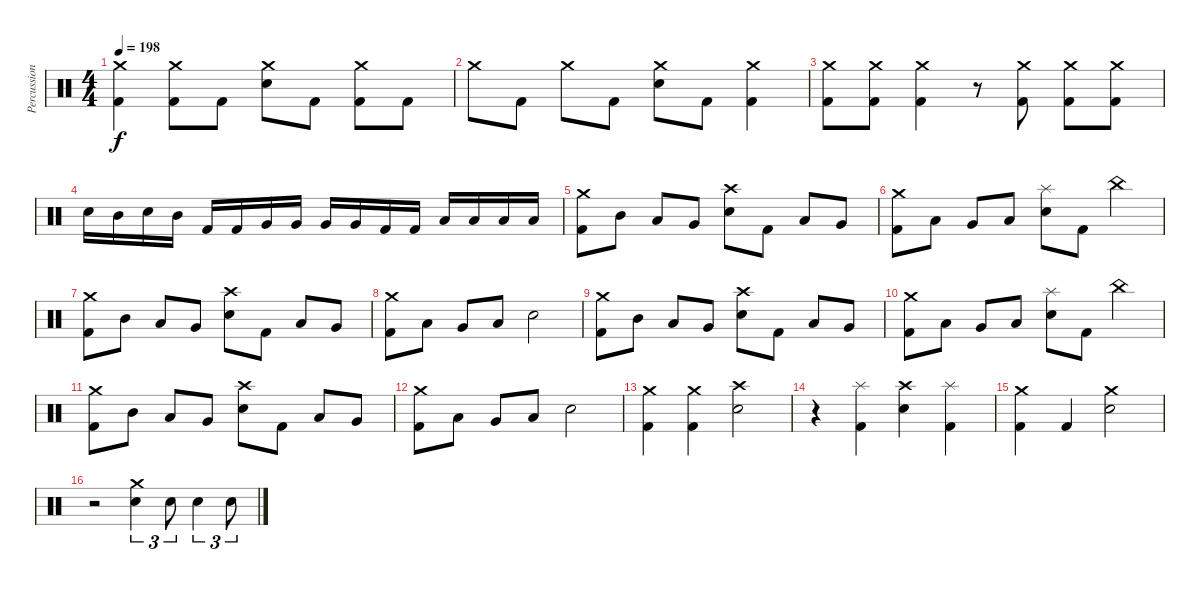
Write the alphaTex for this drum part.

\track ("Percussion" "Percussion") {instrument percussion}
\staff {score}
\articulation defaults
\ts (4 4)
\tempo 198
\clef neutral
\ks c
("Crash medium (hit)" "Kick (hit) 2").4{dy f} ("Crash medium (hit)" "Kick (hit) 2").8 "Kick (hit) 2".8 ("Crash medium (hit)" "Electric Snare (hit)").8 "Kick (hit) 2".8 ("Crash medium (hit)" "Kick (hit) 2").8 "Kick (hit) 2".8 |
"Crash medium (hit)".8 "Kick (hit) 2".8 "Crash medium (hit)".8 "Kick (hit) 2".8 ("Crash medium (hit)" "Electric Snare (hit)").8 "Kick (hit) 2".8 ("Crash medium (hit)" "Kick (hit) 2").4 |
("Crash medium (hit)" "Kick (hit) 2").8 ("Crash medium (hit)" "Kick (hit) 2").8 ("Crash medium (hit)" "Kick (hit) 2").4 r.8 ("Crash medium (hit)" "Kick (hit) 2").8 ("Crash medium (hit)" "Kick (hit) 2").8 ("Crash medium (hit)" "Kick (hit) 2").8 |
"Electric Snare (hit)".16 "Mid Tom (hit)".16 "Electric Snare (hit)".16 "Mid Tom (hit)".16 "Kick (hit) 2".16 "Kick (hit) 2".16 "Very Low Tom (hit)".16 "Very Low Tom (hit)".16 "Very Low Tom (hit)".16 "Very Low Tom (hit)".16 "Kick (hit) 2".16 "Kick (hit) 2".16 "Low Floor Tom (hit)".16 "Low Floor Tom (hit)".16 "Low Floor Tom (hit)".16 "Low Floor Tom (hit)".16 |
("Crash medium (hit)" "Kick (hit) 2").8 "Mid Tom (hit)".8 "Low Tom (hit)".8 "Very Low Tom (hit)".8 ("Crash high (hit)" "Electric Snare (hit)").8 "Kick (hit) 2".8 "Low Tom (hit)".8 "Very Low Tom (hit)".8 |
("Crash medium (hit)" "Kick (hit) 2").8 "Low Tom (hit)".8 "Very Low Tom (hit)".8 "Low Floor Tom (hit)".8 ("Splash (hit)" "Electric Snare (hit)").8 "Kick (hit) 2".8 "China (hit)".4 |
("Crash medium (hit)" "Kick (hit) 2").8 "Mid Tom (hit)".8 "Low Tom (hit)".8 "Very Low Tom (hit)".8 ("Crash high (hit)" "Electric Snare (hit)").8 "Kick (hit) 2".8 "Low Tom (hit)".8 "Very Low Tom (hit)".8 |
("Crash medium (hit)" "Kick (hit) 2").8 "Low Tom (hit)".8 "Very Low Tom (hit)".8 "Low Floor Tom (hit)".8 "Electric Snare (hit)".2 |
("Crash medium (hit)" "Kick (hit) 2").8 "Mid Tom (hit)".8 "Low Tom (hit)".8 "Very Low Tom (hit)".8 ("Crash high (hit)" "Electric Snare (hit)").8 "Kick (hit) 2".8 "Low Tom (hit)".8 "Very Low Tom (hit)".8 |
("Crash medium (hit)" "Kick (hit) 2").8 "Low Tom (hit)".8 "Very Low Tom (hit)".8 "Low Floor Tom (hit)".8 ("Splash (hit)" "Electric Snare (hit)").8 "Kick (hit) 2".8 "China (hit)".4 |
("Crash medium (hit)" "Kick (hit) 2").8 "Mid Tom (hit)".8 "Low Tom (hit)".8 "Very Low Tom (hit)".8 ("Crash high (hit)" "Electric Snare (hit)").8 "Kick (hit) 2".8 "Low Tom (hit)".8 "Very Low Tom (hit)".8 |
("Crash medium (hit)" "Kick (hit) 2").8 "Low Tom (hit)".8 "Very Low Tom (hit)".8 "Low Floor Tom (hit)".8 "Electric Snare (hit)".2 |
("Crash medium (hit)" "Kick (hit) 2").4 ("Crash medium (hit)" "Kick (hit) 2").4 ("Crash high (hit)" "Electric Snare (hit)").2 |
r.4 ("Splash (hit)" "Kick (hit) 2").4 ("Crash high (hit)" "Electric Snare (hit)").4 ("Splash (hit)" "Kick (hit) 2").4 |
("Crash medium (hit)" "Kick (hit) 2").4 "Kick (hit) 2".4 ("Crash medium (hit)" "Electric Snare (hit)").2 |
r.2 ("Crash medium (hit)" "Electric Snare (hit)").4{tu (3 2)} "Electric Snare (hit)".8{tu (3 2)} "Electric Snare (hit)".4{tu (3 2)} "Electric Snare (hit)".8{tu (3 2)}
